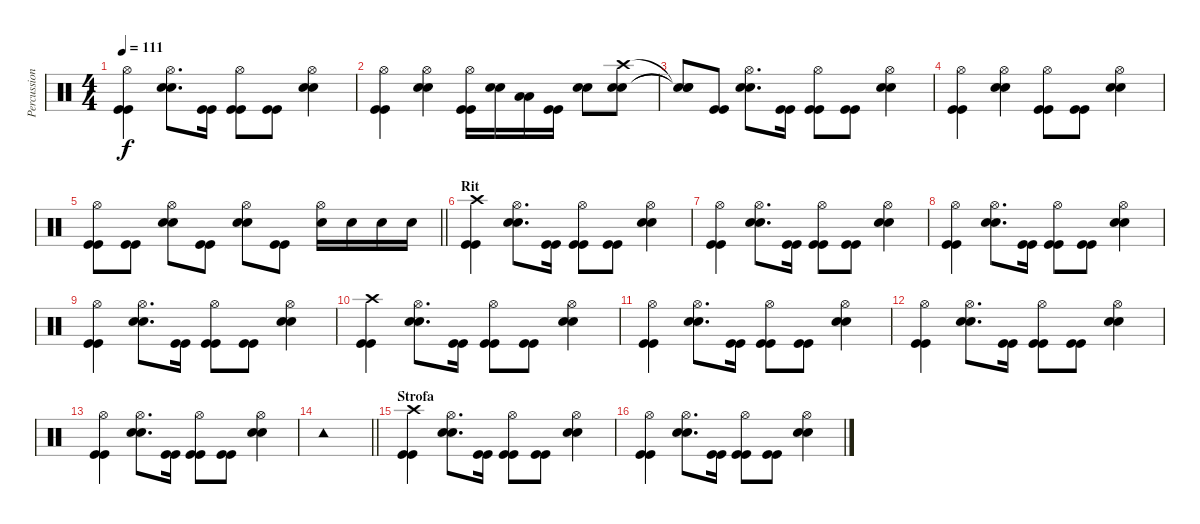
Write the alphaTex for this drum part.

\track ("Percussioni" "Percussion") {instrument percussion}
\staff {score}
\articulation defaults
\ts (4 4)
\tempo 111
\clef neutral
\ks c
("Hi-Hat (open)" "Kick (hit)" "Kick (hit)").4{dy f} ("Hi-Hat (open)" "Snare (hit) 2" "Snare (hit) 2").8{d} ("Kick (hit)" "Kick (hit)").16 ("Hi-Hat (open)" "Kick (hit)" "Kick (hit)").8 ("Kick (hit)" "Kick (hit)").8 ("Hi-Hat (open)" "Snare (hit) 2" "Snare (hit) 2").4 |
("Hi-Hat (open)" "Kick (hit)" "Kick (hit)").4 ("Hi-Hat (open)" "Snare (hit) 2" "Snare (hit) 2").4 ("Hi-Hat (open)" "Kick (hit)" "Kick (hit)").16 ("Snare (hit) 2" "Snare (hit) 2").16 ("Low Tom (hit)" "Low Tom (hit)").16 ("Kick (hit)" "Kick (hit)").16 ("Snare (hit) 2" "Snare (hit) 2").8 ("Crash high (hit)" "Snare (hit) 2" "Snare (hit) 2").8 |
("Snare (hit)"{t} "Snare (hit)"{t} "Snare (hit)"{t}).8 ("Kick (hit)" "Kick (hit)").8 ("Hi-Hat (open)" "Snare (hit) 2" "Snare (hit) 2").8{d} ("Kick (hit)" "Kick (hit)").16 ("Hi-Hat (open)" "Kick (hit)" "Kick (hit)").8 ("Kick (hit)" "Kick (hit)").8 ("Hi-Hat (open)" "Snare (hit) 2" "Snare (hit) 2").4 |
("Hi-Hat (open)" "Kick (hit)" "Kick (hit)").4 ("Hi-Hat (open)" "Snare (hit) 2" "Snare (hit) 2").4 ("Hi-Hat (open)" "Kick (hit)" "Kick (hit)").8 ("Kick (hit)" "Kick (hit)").8 ("Hi-Hat (open)" "Snare (hit) 2" "Snare (hit) 2").4 |
\barLineRight lightlight
("Hi-Hat (open)" "Kick (hit)" "Kick (hit)").8 ("Kick (hit)" "Kick (hit)").8 ("Hi-Hat (open)" "Snare (hit) 2" "Snare (hit) 2").8 ("Kick (hit)" "Kick (hit)").8 ("Hi-Hat (open)" "Snare (hit) 2" "Snare (hit) 2").8 ("Kick (hit)" "Kick (hit)").8 ("Hi-Hat (open)" "Snare (hit) 2").16 "Snare (hit) 2".16 "Snare (hit) 2".16 "Snare (hit) 2".16 |
\section ("" "Rit")
("Crash high (hit)" "Kick (hit)" "Kick (hit)").4 ("Hi-Hat (open)" "Snare (hit) 2" "Snare (hit) 2").8{d} ("Kick (hit)" "Kick (hit)").16 ("Hi-Hat (open)" "Kick (hit)" "Kick (hit)").8 ("Kick (hit)" "Kick (hit)").8 ("Hi-Hat (open)" "Snare (hit) 2" "Snare (hit) 2").4 |
("Hi-Hat (open)" "Kick (hit)" "Kick (hit)").4 ("Hi-Hat (open)" "Snare (hit) 2" "Snare (hit) 2").8{d} ("Kick (hit)" "Kick (hit)").16 ("Hi-Hat (open)" "Kick (hit)" "Kick (hit)").8 ("Kick (hit)" "Kick (hit)").8 ("Hi-Hat (open)" "Snare (hit) 2" "Snare (hit) 2").4 |
("Hi-Hat (open)" "Kick (hit)" "Kick (hit)").4 ("Hi-Hat (open)" "Snare (hit) 2" "Snare (hit) 2").8{d} ("Kick (hit)" "Kick (hit)").16 ("Hi-Hat (open)" "Kick (hit)" "Kick (hit)").8 ("Kick (hit)" "Kick (hit)").8 ("Hi-Hat (open)" "Snare (hit) 2" "Snare (hit) 2").4 |
("Hi-Hat (open)" "Kick (hit)" "Kick (hit)").4 ("Hi-Hat (open)" "Snare (hit) 2" "Snare (hit) 2").8{d} ("Kick (hit)" "Kick (hit)").16 ("Hi-Hat (open)" "Kick (hit)" "Kick (hit)").8 ("Kick (hit)" "Kick (hit)").8 ("Hi-Hat (open)" "Snare (hit) 2" "Snare (hit) 2").4 |
("Crash high (hit)" "Kick (hit)" "Kick (hit)").4 ("Hi-Hat (open)" "Snare (hit) 2" "Snare (hit) 2").8{d} ("Kick (hit)" "Kick (hit)").16 ("Hi-Hat (open)" "Kick (hit)" "Kick (hit)").8 ("Kick (hit)" "Kick (hit)").8 ("Hi-Hat (open)" "Snare (hit) 2" "Snare (hit) 2").4 |
("Hi-Hat (open)" "Kick (hit)" "Kick (hit)").4 ("Hi-Hat (open)" "Snare (hit) 2" "Snare (hit) 2").8{d} ("Kick (hit)" "Kick (hit)").16 ("Hi-Hat (open)" "Kick (hit)" "Kick (hit)").8 ("Kick (hit)" "Kick (hit)").8 ("Hi-Hat (open)" "Snare (hit) 2" "Snare (hit) 2").4 |
("Hi-Hat (open)" "Kick (hit)" "Kick (hit)").4 ("Hi-Hat (open)" "Snare (hit) 2" "Snare (hit) 2").8{d} ("Kick (hit)" "Kick (hit)").16 ("Hi-Hat (open)" "Kick (hit)" "Kick (hit)").8 ("Kick (hit)" "Kick (hit)").8 ("Hi-Hat (open)" "Snare (hit) 2" "Snare (hit) 2").4 |
("Hi-Hat (open)" "Kick (hit)" "Kick (hit)").4 ("Hi-Hat (open)" "Snare (hit) 2" "Snare (hit) 2").8{d} ("Kick (hit)" "Kick (hit)").16 ("Hi-Hat (open)" "Kick (hit)" "Kick (hit)").8 ("Kick (hit)" "Kick (hit)").8 ("Hi-Hat (open)" "Snare (hit) 2" "Snare (hit) 2").4 |
\barLineRight lightlight "Tambourine (hit)".1
|
\section ("" "Strofa")
("Crash high (hit)" "Kick (hit)" "Kick (hit)").4 ("Hi-Hat (open)" "Snare (hit) 2" "Snare (hit) 2").8{d} ("Kick (hit)" "Kick (hit)").16 ("Hi-Hat (open)" "Kick (hit)" "Kick (hit)").8 ("Kick (hit)" "Kick (hit)").8 ("Hi-Hat (open)" "Snare (hit) 2" "Snare (hit) 2").4 |
("Hi-Hat (open)" "Kick (hit)" "Kick (hit)").4 ("Hi-Hat (open)" "Snare (hit) 2" "Snare (hit) 2").8{d} ("Kick (hit)" "Kick (hit)").16 ("Hi-Hat (open)" "Kick (hit)" "Kick (hit)").8 ("Kick (hit)" "Kick (hit)").8 ("Hi-Hat (open)" "Snare (hit) 2" "Snare (hit) 2").4
